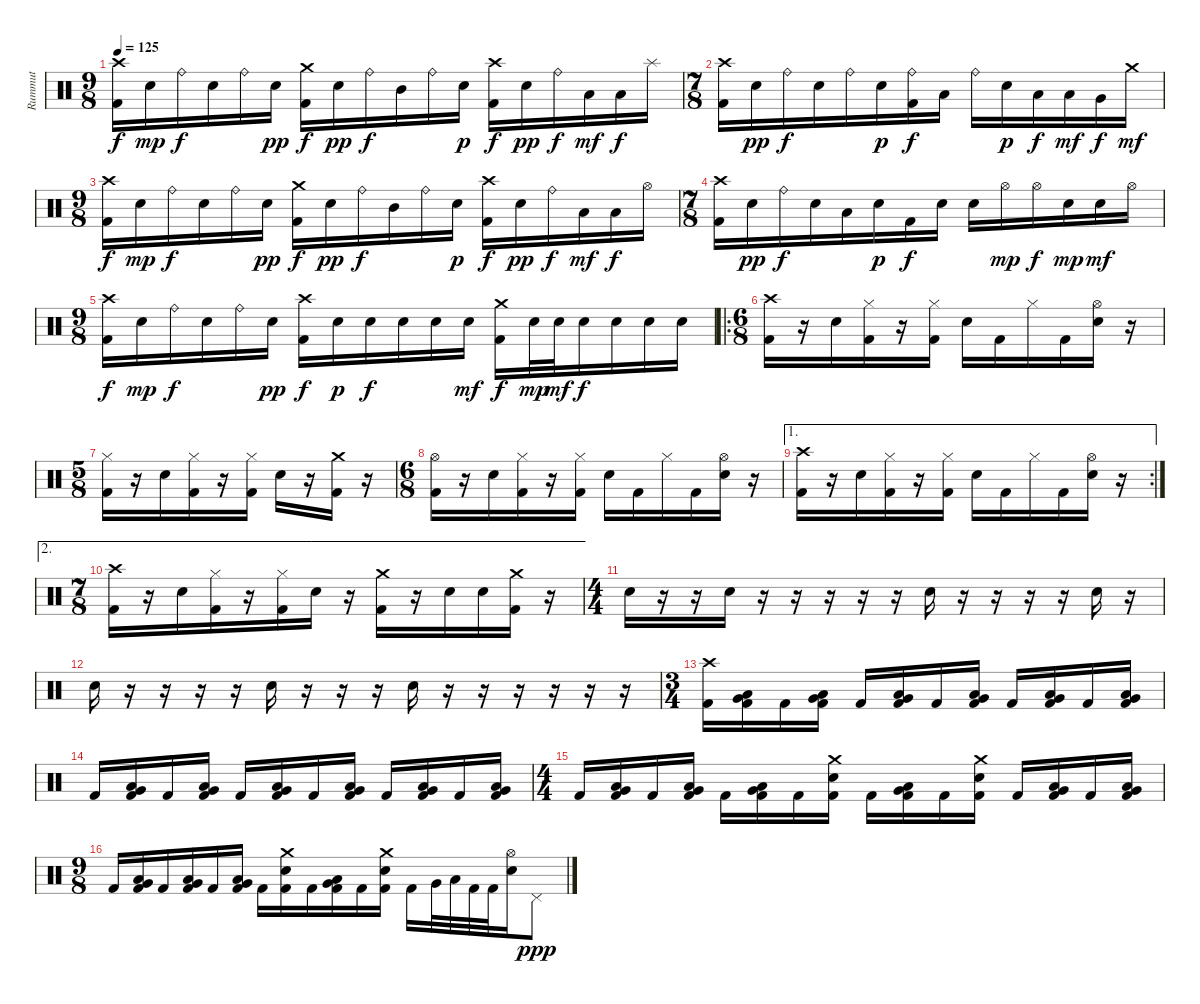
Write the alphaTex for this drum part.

\track ("Rummut" "Rummut") {instrument percussion}
\staff {score}
\articulation defaults
\ts (9 8)
\tempo 125
\clef neutral
\ks c
("Crash high (hit)" "Kick (hit) 2").16{dy f} "Electric Snare (hit)".16{dy mp} "Ride (bell)".16{dy f} "Electric Snare (hit)".16 "Ride (bell)".16 "Electric Snare (hit)".16{dy pp} ("Crash medium (hit)" "Kick (hit) 2").16{dy f} "Electric Snare (hit)".16{dy pp} "Ride (bell)".16{dy f} "Mid Tom (hit)".16 "Ride (bell)".16 "Electric Snare (hit)".16{dy p} ("Crash high (hit)" "Kick (hit) 2").16{dy f} "Electric Snare (hit)".16{dy pp} "Ride (bell)".16{dy f} "Low Tom (hit)".16{dy mf} "Low Tom (hit)".16{dy f} "Splash (hit)".16 |
\ts (7 8)
("Crash high (hit)" "Kick (hit) 2").16 "Electric Snare (hit)".16{dy pp} "Ride (bell)".16{dy f} "Electric Snare (hit)".16 "Ride (bell)".16 "Electric Snare (hit)".16{dy p} ("Ride (bell)" "Kick (hit) 2").16{dy f} "Low Tom (hit)".16 "Ride (bell)".16 "Electric Snare (hit)".16{dy p} "Low Tom (hit)".16{dy f} "Low Tom (hit)".16{dy mf} "Very Low Tom (hit)".16{dy f} "Crash medium (hit)".16{dy mf} |
\ts (9 8)
("Crash high (hit)" "Kick (hit) 2").16{dy f} "Electric Snare (hit)".16{dy mp} "Ride (bell)".16{dy f} "Electric Snare (hit)".16 "Ride (bell)".16 "Electric Snare (hit)".16{dy pp} ("Crash medium (hit)" "Kick (hit) 2").16{dy f} "Electric Snare (hit)".16{dy pp} "Ride (bell)".16{dy f} "Mid Tom (hit)".16 "Ride (bell)".16 "Electric Snare (hit)".16{dy p} ("Crash high (hit)" "Kick (hit) 2").16{dy f} "Electric Snare (hit)".16{dy pp} "Ride (bell)".16{dy f} "Low Tom (hit)".16{dy mf} "Low Tom (hit)".16{dy f} "Hi-Hat (open)".16 |
\ts (7 8)
("Crash high (hit)" "Kick (hit) 2").16 "Electric Snare (hit)".16{dy pp} "Ride (bell)".16{dy f} "Electric Snare (hit)".16 "Low Tom (hit)".16 "Electric Snare (hit)".16{dy p} "Kick (hit) 2".16{dy f} "Electric Snare (hit)".16 "Electric Snare (hit)".16 "Hi-Hat (open)".16{dy mp} "Hi-Hat (open)".16{dy f} "Electric Snare (hit)".16{dy mp} "Electric Snare (hit)".16{dy mf} "Hi-Hat (open)".16 |
\ts (9 8)
("Crash high (hit)" "Kick (hit) 2").16{dy f} "Electric Snare (hit)".16{dy mp} "Ride (bell)".16{dy f} "Electric Snare (hit)".16 "Ride (bell)".16 "Electric Snare (hit)".16{dy pp} ("Crash high (hit)" "Kick (hit) 2").16{dy f} "Electric Snare (hit)".16{dy p} "Electric Snare (hit)".16{dy f} "Electric Snare (hit)".16 "Electric Snare (hit)".16 "Electric Snare (hit)".16{dy mf} ("Crash medium (hit)" "Kick (hit) 2").16{dy f} "Electric Snare (hit)".32{dy mp} "Electric Snare (hit)".32{dy mf} "Electric Snare (hit)".16{dy f} "Electric Snare (hit)".16 "Electric Snare (hit)".16 "Electric Snare (hit)".16 |
\ro
\ts (6 8)
("Crash high (hit)" "Kick (hit) 2").16 r.16 "Electric Snare (hit)".16 ("Hi-Hat (closed)" "Kick (hit) 2").16 r.16 ("Hi-Hat (closed)" "Kick (hit) 2").16 "Electric Snare (hit)".16 "Kick (hit) 2".16 "Hi-Hat (closed)".16 "Kick (hit) 2".16 ("Hi-Hat (open)" "Electric Snare (hit)").16 r.16 |
\ts (5 8)
("Hi-Hat (closed)" "Kick (hit) 2").16 r.16 "Electric Snare (hit)".16 ("Hi-Hat (closed)" "Kick (hit) 2").16 r.16 ("Hi-Hat (closed)" "Kick (hit) 2").16 "Electric Snare (hit)".16 r.16 ("Crash medium (hit)" "Kick (hit) 2").16 r.16 |
\ts (6 8)
("Hi-Hat (open)" "Kick (hit) 2").16 r.16 "Electric Snare (hit)".16 ("Hi-Hat (closed)" "Kick (hit) 2").16 r.16 ("Hi-Hat (closed)" "Kick (hit) 2").16 "Electric Snare (hit)".16 "Kick (hit) 2".16 "Hi-Hat (closed)".16 "Kick (hit) 2".16 ("Hi-Hat (open)" "Electric Snare (hit)").16 r.16 |
\ae 1
\rc 2
("Crash high (hit)" "Kick (hit) 2").16 r.16 "Electric Snare (hit)".16 ("Hi-Hat (closed)" "Kick (hit) 2").16 r.16 ("Hi-Hat (closed)" "Kick (hit) 2").16 "Electric Snare (hit)".16 "Kick (hit) 2".16 "Hi-Hat (closed)".16 "Kick (hit) 2".16 ("Hi-Hat (open)" "Electric Snare (hit)").16 r.16 |
\ae 2
\ts (7 8)
("Crash high (hit)" "Kick (hit) 2").16 r.16 "Electric Snare (hit)".16 ("Hi-Hat (closed)" "Kick (hit) 2").16 r.16 ("Hi-Hat (closed)" "Kick (hit) 2").16 "Electric Snare (hit)".16 r.16 ("Crash medium (hit)" "Kick (hit) 2").16 r.16 "Electric Snare (hit)".16 "Electric Snare (hit)".16 ("Crash medium (hit)" "Kick (hit) 2").16 r.16 |
\ts (4 4)
"Electric Snare (hit)".16 r.16 r.16 "Electric Snare (hit)".16 r.16 r.16 r.16 r.16 r.16 "Electric Snare (hit)".16 r.16 r.16 r.16 r.16 "Electric Snare (hit)".16 r.16 |
"Electric Snare (hit)".16 r.16 r.16 r.16 r.16 "Electric Snare (hit)".16 r.16 r.16 r.16 "Electric Snare (hit)".16 r.16 r.16 r.16 r.16 r.16 r.16 |
\ts (3 4)
("Crash high (hit)" "Kick (hit) 2").16 ("Very Low Tom (hit)" "Low Floor Tom (hit)" "Kick (hit) 2").16 "Kick (hit) 2".16 ("Very Low Tom (hit)" "Low Floor Tom (hit)" "Kick (hit) 2").16 "Kick (hit) 2".16 ("Very Low Tom (hit)" "Low Floor Tom (hit)" "Kick (hit) 2").16 "Kick (hit) 2".16 ("Very Low Tom (hit)" "Low Floor Tom (hit)" "Kick (hit) 2").16 "Kick (hit) 2".16 ("Very Low Tom (hit)" "Low Floor Tom (hit)" "Kick (hit) 2").16 "Kick (hit) 2".16 ("Very Low Tom (hit)" "Low Floor Tom (hit)" "Kick (hit) 2").16 |
"Kick (hit) 2".16 ("Very Low Tom (hit)" "Low Floor Tom (hit)" "Kick (hit) 2").16 "Kick (hit) 2".16 ("Very Low Tom (hit)" "Low Floor Tom (hit)" "Kick (hit) 2").16 "Kick (hit) 2".16 ("Very Low Tom (hit)" "Low Floor Tom (hit)" "Kick (hit) 2").16 "Kick (hit) 2".16 ("Very Low Tom (hit)" "Low Floor Tom (hit)" "Kick (hit) 2").16 "Kick (hit) 2".16 ("Very Low Tom (hit)" "Low Floor Tom (hit)" "Kick (hit) 2").16 "Kick (hit) 2".16 ("Very Low Tom (hit)" "Low Floor Tom (hit)" "Kick (hit) 2").16 |
\ts (4 4)
"Kick (hit) 2".16 ("Very Low Tom (hit)" "Low Floor Tom (hit)" "Kick (hit) 2").16 "Kick (hit) 2".16 ("Very Low Tom (hit)" "Low Floor Tom (hit)" "Kick (hit) 2").16 "Kick (hit) 2".16 ("Very Low Tom (hit)" "Low Floor Tom (hit)" "Kick (hit) 2").16 "Kick (hit) 2".16 ("Crash medium (hit)" "Electric Snare (hit)" "Kick (hit) 2").16 "Kick (hit) 2".16 ("Very Low Tom (hit)" "Low Floor Tom (hit)" "Kick (hit) 2").16 "Kick (hit) 2".16 ("Crash medium (hit)" "Electric Snare (hit)" "Kick (hit) 2").16 "Kick (hit) 2".16 ("Very Low Tom (hit)" "Low Floor Tom (hit)" "Kick (hit) 2").16 "Kick (hit) 2".16 ("Very Low Tom (hit)" "Low Floor Tom (hit)" "Kick (hit) 2").16 |
\ts (9 8)
"Kick (hit) 2".16 ("Very Low Tom (hit)" "Low Floor Tom (hit)" "Kick (hit) 2").16 "Kick (hit) 2".16 ("Very Low Tom (hit)" "Low Floor Tom (hit)" "Kick (hit) 2").16 "Kick (hit) 2".16 ("Very Low Tom (hit)" "Low Floor Tom (hit)" "Kick (hit) 2").16 "Kick (hit) 2".16 ("Crash medium (hit)" "Electric Snare (hit)" "Kick (hit) 2").16 "Kick (hit) 2".16 ("Very Low Tom (hit)" "Low Floor Tom (hit)" "Kick (hit) 2").16 "Kick (hit) 2".16 ("Crash medium (hit)" "Electric Snare (hit)" "Kick (hit) 2").16 "Kick (hit) 2".16 "Very Low Tom (hit)".32 "Low Floor Tom (hit)".32 "Kick (hit) 2".32 "Kick (hit) 2".32 ("Hi-Hat (open)" "Electric Snare (hit)").16 "Pedal Hi-Hat (hit)".8{dy ppp}
